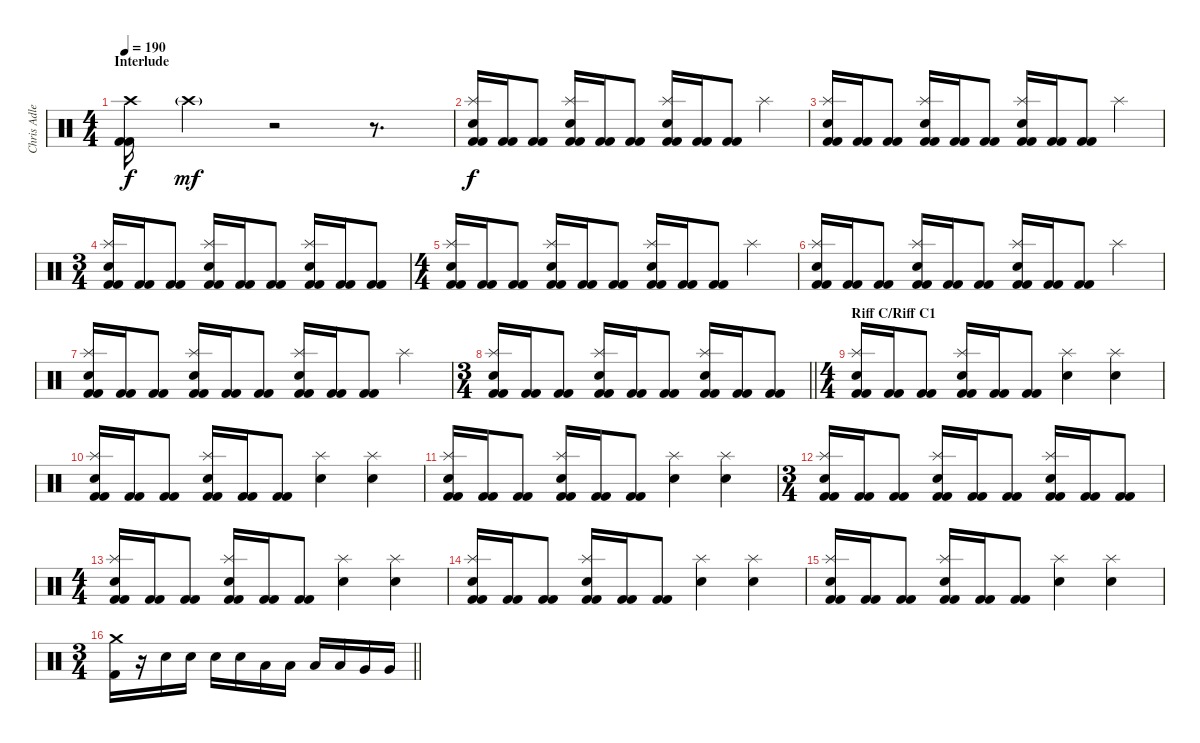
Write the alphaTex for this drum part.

\track ("Chris Adler" "Chris Adle") {instrument percussion}
\staff {score}
\articulation defaults
\ts (4 4)
\section ("" "Interlude")
\tempo 190
\clef neutral
\ks c
("Kick (hit) 2" "Kick (hit) 2" "Crash high (hit)").16{dy f} "Crash high (hit)"{g}.4{dy mf} r.2 r.8{d} |
("Splash (hit)" "Snare (hit) 2" "Kick (hit) 2" "Kick (hit) 2").16{dy f} ("Kick (hit) 2" "Kick (hit) 2").16 ("Kick (hit) 2" "Kick (hit) 2").8 ("Splash (hit)" "Snare (hit) 2" "Kick (hit) 2" "Kick (hit) 2").16 ("Kick (hit) 2" "Kick (hit) 2").16 ("Kick (hit) 2" "Kick (hit) 2").8 ("Splash (hit)" "Snare (hit) 2" "Kick (hit) 2" "Kick (hit) 2").16 ("Kick (hit) 2" "Kick (hit) 2").16 ("Kick (hit) 2" "Kick (hit) 2").8 "Splash (hit)".4 |
("Splash (hit)" "Snare (hit) 2" "Kick (hit) 2" "Kick (hit) 2").16 ("Kick (hit) 2" "Kick (hit) 2").16 ("Kick (hit) 2" "Kick (hit) 2").8 ("Splash (hit)" "Snare (hit) 2" "Kick (hit) 2" "Kick (hit) 2").16 ("Kick (hit) 2" "Kick (hit) 2").16 ("Kick (hit) 2" "Kick (hit) 2").8 ("Splash (hit)" "Snare (hit) 2" "Kick (hit) 2" "Kick (hit) 2").16 ("Kick (hit) 2" "Kick (hit) 2").16 ("Kick (hit) 2" "Kick (hit) 2").8 "Splash (hit)".4 |
\ts (3 4)
("Splash (hit)" "Snare (hit) 2" "Kick (hit) 2" "Kick (hit) 2").16 ("Kick (hit) 2" "Kick (hit) 2").16 ("Kick (hit) 2" "Kick (hit) 2").8 ("Splash (hit)" "Snare (hit) 2" "Kick (hit) 2" "Kick (hit) 2").16 ("Kick (hit) 2" "Kick (hit) 2").16 ("Kick (hit) 2" "Kick (hit) 2").8 ("Splash (hit)" "Snare (hit) 2" "Kick (hit) 2" "Kick (hit) 2").16 ("Kick (hit) 2" "Kick (hit) 2").16 ("Kick (hit) 2" "Kick (hit) 2").8 |
\ts (4 4)
("Splash (hit)" "Snare (hit) 2" "Kick (hit) 2" "Kick (hit) 2").16 ("Kick (hit) 2" "Kick (hit) 2").16 ("Kick (hit) 2" "Kick (hit) 2").8 ("Splash (hit)" "Snare (hit) 2" "Kick (hit) 2" "Kick (hit) 2").16 ("Kick (hit) 2" "Kick (hit) 2").16 ("Kick (hit) 2" "Kick (hit) 2").8 ("Splash (hit)" "Snare (hit) 2" "Kick (hit) 2" "Kick (hit) 2").16 ("Kick (hit) 2" "Kick (hit) 2").16 ("Kick (hit) 2" "Kick (hit) 2").8 "Splash (hit)".4 |
("Splash (hit)" "Snare (hit) 2" "Kick (hit) 2" "Kick (hit) 2").16 ("Kick (hit) 2" "Kick (hit) 2").16 ("Kick (hit) 2" "Kick (hit) 2").8 ("Splash (hit)" "Snare (hit) 2" "Kick (hit) 2" "Kick (hit) 2").16 ("Kick (hit) 2" "Kick (hit) 2").16 ("Kick (hit) 2" "Kick (hit) 2").8 ("Splash (hit)" "Snare (hit) 2" "Kick (hit) 2" "Kick (hit) 2").16 ("Kick (hit) 2" "Kick (hit) 2").16 ("Kick (hit) 2" "Kick (hit) 2").8 "Splash (hit)".4 |
("Splash (hit)" "Snare (hit) 2" "Kick (hit) 2" "Kick (hit) 2").16 ("Kick (hit) 2" "Kick (hit) 2").16 ("Kick (hit) 2" "Kick (hit) 2").8 ("Splash (hit)" "Snare (hit) 2" "Kick (hit) 2" "Kick (hit) 2").16 ("Kick (hit) 2" "Kick (hit) 2").16 ("Kick (hit) 2" "Kick (hit) 2").8 ("Splash (hit)" "Snare (hit) 2" "Kick (hit) 2" "Kick (hit) 2").16 ("Kick (hit) 2" "Kick (hit) 2").16 ("Kick (hit) 2" "Kick (hit) 2").8 "Splash (hit)".4 |
\ts (3 4)
\barLineRight lightlight
("Splash (hit)" "Snare (hit) 2" "Kick (hit) 2" "Kick (hit) 2").16 ("Kick (hit) 2" "Kick (hit) 2").16 ("Kick (hit) 2" "Kick (hit) 2").8 ("Splash (hit)" "Snare (hit) 2" "Kick (hit) 2" "Kick (hit) 2").16 ("Kick (hit) 2" "Kick (hit) 2").16 ("Kick (hit) 2" "Kick (hit) 2").8 ("Splash (hit)" "Snare (hit) 2" "Kick (hit) 2" "Kick (hit) 2").16 ("Kick (hit) 2" "Kick (hit) 2").16 ("Kick (hit) 2" "Kick (hit) 2").8 |
\ts (4 4)
\section ("" "Riff C/Riff C1")
("Splash (hit)" "Snare (hit) 2" "Kick (hit) 2" "Kick (hit) 2").16 ("Kick (hit) 2" "Kick (hit) 2").16 ("Kick (hit) 2" "Kick (hit) 2").8 ("Splash (hit)" "Snare (hit) 2" "Kick (hit) 2" "Kick (hit) 2").16 ("Kick (hit) 2" "Kick (hit) 2").16 ("Kick (hit) 2" "Kick (hit) 2").8 ("Splash (hit)" "Snare (hit) 2").4 ("Splash (hit)" "Snare (hit) 2").4 |
("Splash (hit)" "Snare (hit) 2" "Kick (hit) 2" "Kick (hit) 2").16 ("Kick (hit) 2" "Kick (hit) 2").16 ("Kick (hit) 2" "Kick (hit) 2").8 ("Splash (hit)" "Snare (hit) 2" "Kick (hit) 2" "Kick (hit) 2").16 ("Kick (hit) 2" "Kick (hit) 2").16 ("Kick (hit) 2" "Kick (hit) 2").8 ("Splash (hit)" "Snare (hit) 2").4 ("Splash (hit)" "Snare (hit) 2").4 |
("Splash (hit)" "Snare (hit) 2" "Kick (hit) 2" "Kick (hit) 2").16 ("Kick (hit) 2" "Kick (hit) 2").16 ("Kick (hit) 2" "Kick (hit) 2").8 ("Splash (hit)" "Snare (hit) 2" "Kick (hit) 2" "Kick (hit) 2").16 ("Kick (hit) 2" "Kick (hit) 2").16 ("Kick (hit) 2" "Kick (hit) 2").8 ("Splash (hit)" "Snare (hit) 2").4 ("Splash (hit)" "Snare (hit) 2").4 |
\ts (3 4)
("Splash (hit)" "Snare (hit) 2" "Kick (hit) 2" "Kick (hit) 2").16 ("Kick (hit) 2" "Kick (hit) 2").16 ("Kick (hit) 2" "Kick (hit) 2").8 ("Splash (hit)" "Snare (hit) 2" "Kick (hit) 2" "Kick (hit) 2").16 ("Kick (hit) 2" "Kick (hit) 2").16 ("Kick (hit) 2" "Kick (hit) 2").8 ("Splash (hit)" "Snare (hit) 2" "Kick (hit) 2" "Kick (hit) 2").16 ("Kick (hit) 2" "Kick (hit) 2").16 ("Kick (hit) 2" "Kick (hit) 2").8 |
\ts (4 4)
("Splash (hit)" "Snare (hit) 2" "Kick (hit) 2" "Kick (hit) 2").16 ("Kick (hit) 2" "Kick (hit) 2").16 ("Kick (hit) 2" "Kick (hit) 2").8 ("Splash (hit)" "Snare (hit) 2" "Kick (hit) 2" "Kick (hit) 2").16 ("Kick (hit) 2" "Kick (hit) 2").16 ("Kick (hit) 2" "Kick (hit) 2").8 ("Splash (hit)" "Snare (hit) 2").4 ("Splash (hit)" "Snare (hit) 2").4 |
("Splash (hit)" "Snare (hit) 2" "Kick (hit) 2" "Kick (hit) 2").16 ("Kick (hit) 2" "Kick (hit) 2").16 ("Kick (hit) 2" "Kick (hit) 2").8 ("Splash (hit)" "Snare (hit) 2" "Kick (hit) 2" "Kick (hit) 2").16 ("Kick (hit) 2" "Kick (hit) 2").16 ("Kick (hit) 2" "Kick (hit) 2").8 ("Splash (hit)" "Snare (hit) 2").4 ("Splash (hit)" "Snare (hit) 2").4 |
("Splash (hit)" "Snare (hit) 2" "Kick (hit) 2" "Kick (hit) 2").16 ("Kick (hit) 2" "Kick (hit) 2").16 ("Kick (hit) 2" "Kick (hit) 2").8 ("Splash (hit)" "Snare (hit) 2" "Kick (hit) 2" "Kick (hit) 2").16 ("Kick (hit) 2" "Kick (hit) 2").16 ("Kick (hit) 2" "Kick (hit) 2").8 ("Splash (hit)" "Snare (hit) 2").4 ("Splash (hit)" "Snare (hit) 2").4 |
\ts (3 4)
\barLineRight lightlight
("Kick (hit) 2" "Crash medium (hit)").16 r.16 "Snare (hit) 2".16 "Snare (hit) 2".16 "Snare (hit) 2".16 "Snare (hit) 2".16 "Low Tom (hit)".16 "Low Tom (hit)".16 "Low Tom (hit)".16 "Low Tom (hit)".16 "Very Low Tom (hit)".16 "Very Low Tom (hit)".16
